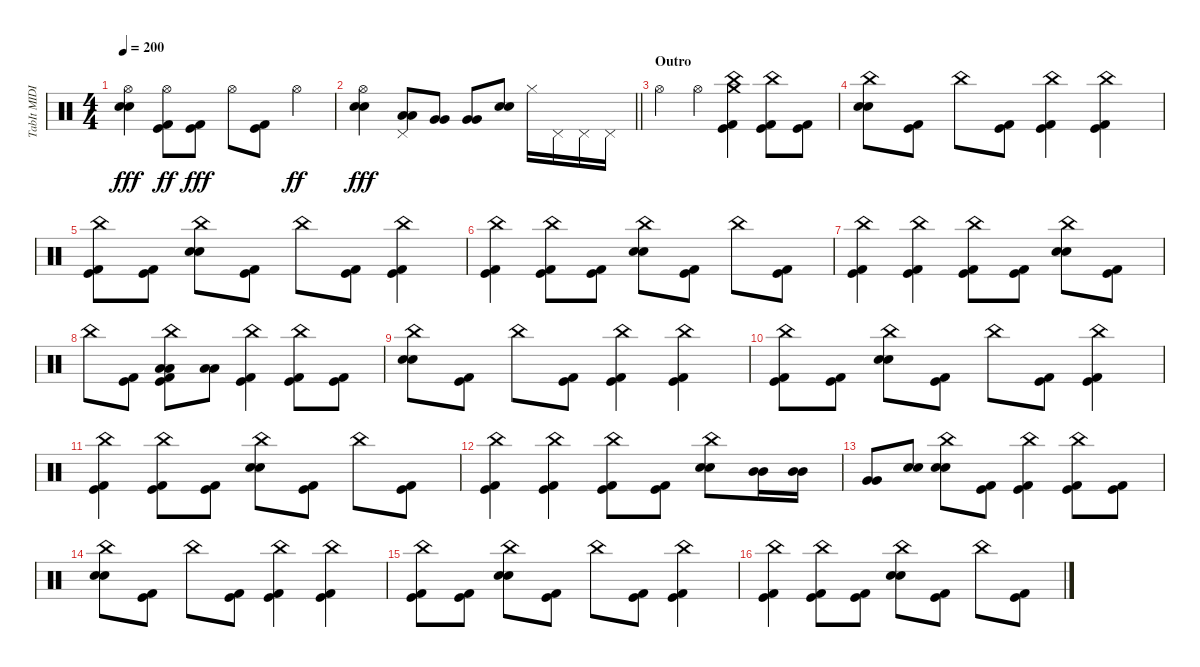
\track ("TabIt MIDI - Track 4" "TabIt MIDI") {instrument percussion}
\staff {score}
\articulation defaults
\ts (4 4)
\tempo 200
\clef neutral
\ks c
("Electric Snare (hit)" "Electric Snare (hit)" "Hi-Hat (open)").4{dy fff} ("Kick (hit)" "Kick (hit) 2" "Hi-Hat (open)").8{dy ff} ("Kick (hit)" "Kick (hit) 2").8{dy fff} "Hi-Hat (open)".8 ("Kick (hit)" "Kick (hit) 2").8 "Hi-Hat (open)".4{dy ff} |
\barLineRight lightlight
("Electric Snare (hit)" "Electric Snare (hit)" "Hi-Hat (open)").4{dy fff} ("Low Tom (hit)" "Low Tom (hit)" "Pedal Hi-Hat (hit)").8 ("Very Low Tom (hit)" "Very Low Tom (hit)").8 ("Very Low Tom (hit)" "Very Low Tom (hit)").8 ("Electric Snare (hit)" "Electric Snare (hit)").8 "Hi-Hat (closed)".16 "Pedal Hi-Hat (hit)".16 "Pedal Hi-Hat (hit)".16 "Pedal Hi-Hat (hit)".16 |
\section ("" "Outro")
"Hi-Hat (open)".4 "Hi-Hat (open)".4 ("Kick (hit)" "Kick (hit) 2" "China (hit)" "Crash medium (hit)").4 ("Kick (hit)" "Kick (hit) 2" "China (hit)").8 ("Kick (hit)" "Kick (hit) 2").8 |
("Electric Snare (hit)" "Electric Snare (hit)" "China (hit)").8 ("Kick (hit)" "Kick (hit) 2").8 "China (hit)".8 ("Kick (hit)" "Kick (hit) 2").8 ("Kick (hit)" "Kick (hit) 2" "China (hit)").4 ("Kick (hit)" "Kick (hit) 2" "China (hit)").4 |
("Kick (hit)" "Kick (hit) 2" "China (hit)").8 ("Kick (hit)" "Kick (hit) 2").8 ("Electric Snare (hit)" "Electric Snare (hit)" "China (hit)").8 ("Kick (hit)" "Kick (hit) 2").8 "China (hit)".8 ("Kick (hit)" "Kick (hit) 2").8 ("Kick (hit)" "Kick (hit) 2" "China (hit)").4 |
("Kick (hit)" "Kick (hit) 2" "China (hit)").4 ("Kick (hit)" "Kick (hit) 2" "China (hit)").8 ("Kick (hit)" "Kick (hit) 2").8 ("Electric Snare (hit)" "Electric Snare (hit)" "China (hit)").8 ("Kick (hit)" "Kick (hit) 2").8 "China (hit)".8 ("Kick (hit)" "Kick (hit) 2").8 |
("Kick (hit)" "Kick (hit) 2" "China (hit)").4 ("Kick (hit)" "Kick (hit) 2" "China (hit)").4 ("Kick (hit)" "Kick (hit) 2" "China (hit)").8 ("Kick (hit)" "Kick (hit) 2").8 ("Electric Snare (hit)" "Electric Snare (hit)" "China (hit)").8 ("Kick (hit)" "Kick (hit) 2").8 |
"China (hit)".8 ("Kick (hit)" "Kick (hit) 2").8 ("Kick (hit)" "Kick (hit) 2" "Low Tom (hit)" "Low Tom (hit)" "China (hit)").8 ("Low Tom (hit)" "Low Tom (hit)").8 ("Kick (hit)" "Kick (hit) 2" "China (hit)").4 ("Kick (hit)" "Kick (hit) 2" "China (hit)").8 ("Kick (hit)" "Kick (hit) 2").8 |
("Electric Snare (hit)" "Electric Snare (hit)" "China (hit)").8 ("Kick (hit)" "Kick (hit) 2").8 "China (hit)".8 ("Kick (hit)" "Kick (hit) 2").8 ("Kick (hit)" "Kick (hit) 2" "China (hit)").4 ("Kick (hit)" "Kick (hit) 2" "China (hit)").4 |
("Kick (hit)" "Kick (hit) 2" "China (hit)").8 ("Kick (hit)" "Kick (hit) 2").8 ("Electric Snare (hit)" "Electric Snare (hit)" "China (hit)").8 ("Kick (hit)" "Kick (hit) 2").8 "China (hit)".8 ("Kick (hit)" "Kick (hit) 2").8 ("Kick (hit)" "Kick (hit) 2" "China (hit)").4 |
("Kick (hit)" "Kick (hit) 2" "China (hit)").4 ("Kick (hit)" "Kick (hit) 2" "China (hit)").8 ("Kick (hit)" "Kick (hit) 2").8 ("Electric Snare (hit)" "Electric Snare (hit)" "China (hit)").8 ("Kick (hit)" "Kick (hit) 2").8 "China (hit)".8 ("Kick (hit)" "Kick (hit) 2").8 |
("Kick (hit)" "Kick (hit) 2" "China (hit)").4 ("Kick (hit)" "Kick (hit) 2" "China (hit)").4 ("Kick (hit)" "Kick (hit) 2" "China (hit)").8 ("Kick (hit)" "Kick (hit) 2").8 ("Electric Snare (hit)" "Electric Snare (hit)" "China (hit)").8 ("Mid Tom (hit)" "Mid Tom (hit)").16 ("Mid Tom (hit)" "Mid Tom (hit)").16 |
("Very Low Tom (hit)" "Very Low Tom (hit)").8 ("Electric Snare (hit)" "Electric Snare (hit)").8 ("Electric Snare (hit)" "Electric Snare (hit)" "China (hit)").8 ("Kick (hit)" "Kick (hit) 2").8 ("Kick (hit)" "Kick (hit) 2" "China (hit)").4 ("Kick (hit)" "Kick (hit) 2" "China (hit)").8 ("Kick (hit)" "Kick (hit) 2").8 |
("Electric Snare (hit)" "Electric Snare (hit)" "China (hit)").8 ("Kick (hit)" "Kick (hit) 2").8 "China (hit)".8 ("Kick (hit)" "Kick (hit) 2").8 ("Kick (hit)" "Kick (hit) 2" "China (hit)").4 ("Kick (hit)" "Kick (hit) 2" "China (hit)").4 |
("Kick (hit)" "Kick (hit) 2" "China (hit)").8 ("Kick (hit)" "Kick (hit) 2").8 ("Electric Snare (hit)" "Electric Snare (hit)" "China (hit)").8 ("Kick (hit)" "Kick (hit) 2").8 "China (hit)".8 ("Kick (hit)" "Kick (hit) 2").8 ("Kick (hit)" "Kick (hit) 2" "China (hit)").4 |
("Kick (hit)" "Kick (hit) 2" "China (hit)").4 ("Kick (hit)" "Kick (hit) 2" "China (hit)").8 ("Kick (hit)" "Kick (hit) 2").8 ("Electric Snare (hit)" "Electric Snare (hit)" "China (hit)").8 ("Kick (hit)" "Kick (hit) 2").8 "China (hit)".8 ("Kick (hit)" "Kick (hit) 2").8
